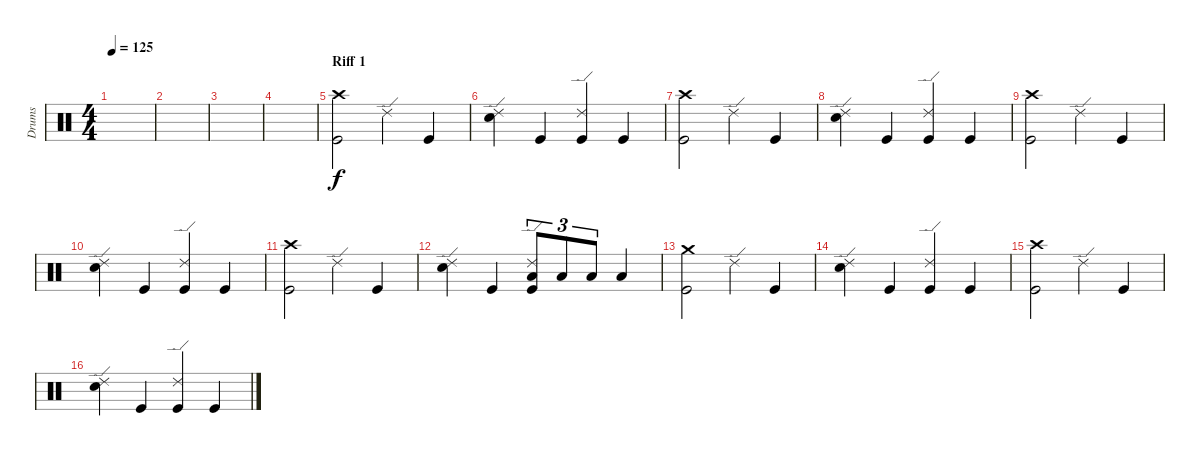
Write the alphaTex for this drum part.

\track ("Drums" "Drums") {instrument percussion}
\staff {score}
\articulation defaults
\ts (4 4)
\tempo 125
\clef neutral
\ks c
|
|
|
|
\section ("" "Riff 1")
("Crash high (hit)" "Kick (hit)").2 "Ride (edge) 2".4 "Kick (hit)".4 |
("Ride (edge) 2" "Snare (hit) 2").4 "Kick (hit)".4 ("Ride (edge) 2" "Kick (hit)").4 "Kick (hit)".4 |
("Crash high (hit)" "Kick (hit)").2 "Ride (edge) 2".4 "Kick (hit)".4 |
("Ride (edge) 2" "Snare (hit) 2").4 "Kick (hit)".4 ("Ride (edge) 2" "Kick (hit)").4 "Kick (hit)".4 |
("Crash high (hit)" "Kick (hit)").2 "Ride (edge) 2".4 "Kick (hit)".4 |
("Ride (edge) 2" "Snare (hit) 2").4 "Kick (hit)".4 ("Ride (edge) 2" "Kick (hit)").4 "Kick (hit)".4 |
("Crash high (hit)" "Kick (hit)").2 "Ride (edge) 2".4 "Kick (hit)".4 |
("Ride (edge) 2" "Snare (hit) 2").4 "Kick (hit)".4 ("Ride (edge) 2" "Low Tom (hit)" "Kick (hit)").8{tu (3 2)} "Low Tom (hit)".8{tu (3 2)} "Low Tom (hit)".8{tu (3 2)} "Low Floor Tom (hit)".4 |
("Crash medium (hit)" "Kick (hit)").2 "Ride (edge) 2".4 "Kick (hit)".4 |
("Ride (edge) 2" "Snare (hit) 2").4 "Kick (hit)".4 ("Ride (edge) 2" "Kick (hit)").4 "Kick (hit)".4 |
("Crash high (hit)" "Kick (hit)").2 "Ride (edge) 2".4 "Kick (hit)".4 |
("Ride (edge) 2" "Snare (hit) 2").4 "Kick (hit)".4 ("Ride (edge) 2" "Kick (hit)").4 "Kick (hit)".4
